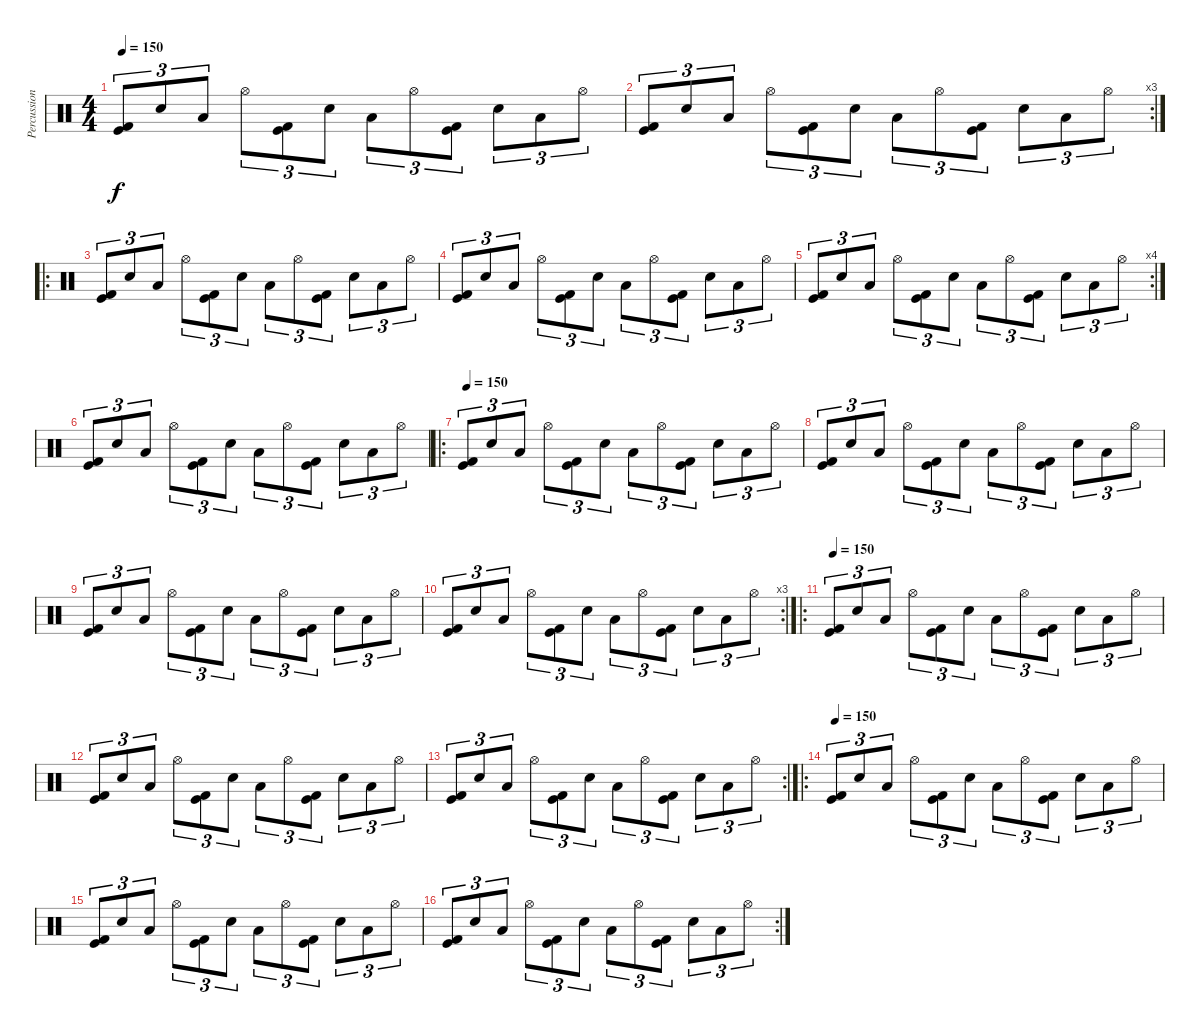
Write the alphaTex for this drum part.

\track ("Percussion" "Percussion") {instrument percussion}
\staff {score}
\articulation defaults
\ts (4 4)
\tempo 150
\clef neutral
\ks c
("Kick (hit)" "Kick (hit) 2").8{tu (3 2) dy f} "Snare (hit) 2".8{tu (3 2)} "Low Tom (hit)".8{tu (3 2)} "Hi-Hat (open)".8{tu (3 2)} ("Kick (hit)" "Kick (hit) 2").8{tu (3 2)} "Snare (hit) 2".8{tu (3 2)} "Low Tom (hit)".8{tu (3 2)} "Hi-Hat (open)".8{tu (3 2)} ("Kick (hit)" "Kick (hit) 2").8{tu (3 2)} "Snare (hit) 2".8{tu (3 2)} "Low Tom (hit)".8{tu (3 2)} "Hi-Hat (open)".8{tu (3 2)} |
\rc 3
("Kick (hit)" "Kick (hit) 2").8{tu (3 2)} "Snare (hit) 2".8{tu (3 2)} "Low Tom (hit)".8{tu (3 2)} "Hi-Hat (open)".8{tu (3 2)} ("Kick (hit)" "Kick (hit) 2").8{tu (3 2)} "Snare (hit) 2".8{tu (3 2)} "Low Tom (hit)".8{tu (3 2)} "Hi-Hat (open)".8{tu (3 2)} ("Kick (hit)" "Kick (hit) 2").8{tu (3 2)} "Snare (hit) 2".8{tu (3 2)} "Low Tom (hit)".8{tu (3 2)} "Hi-Hat (open)".8{tu (3 2)} |
\ro
("Kick (hit)" "Kick (hit) 2").8{tu (3 2)} "Snare (hit) 2".8{tu (3 2)} "Low Tom (hit)".8{tu (3 2)} "Hi-Hat (open)".8{tu (3 2)} ("Kick (hit)" "Kick (hit) 2").8{tu (3 2)} "Snare (hit) 2".8{tu (3 2)} "Low Tom (hit)".8{tu (3 2)} "Hi-Hat (open)".8{tu (3 2)} ("Kick (hit)" "Kick (hit) 2").8{tu (3 2)} "Snare (hit) 2".8{tu (3 2)} "Low Tom (hit)".8{tu (3 2)} "Hi-Hat (open)".8{tu (3 2)} |
("Kick (hit)" "Kick (hit) 2").8{tu (3 2)} "Snare (hit) 2".8{tu (3 2)} "Low Tom (hit)".8{tu (3 2)} "Hi-Hat (open)".8{tu (3 2)} ("Kick (hit)" "Kick (hit) 2").8{tu (3 2)} "Snare (hit) 2".8{tu (3 2)} "Low Tom (hit)".8{tu (3 2)} "Hi-Hat (open)".8{tu (3 2)} ("Kick (hit)" "Kick (hit) 2").8{tu (3 2)} "Snare (hit) 2".8{tu (3 2)} "Low Tom (hit)".8{tu (3 2)} "Hi-Hat (open)".8{tu (3 2)} |
\rc 4
("Kick (hit)" "Kick (hit) 2").8{tu (3 2)} "Snare (hit) 2".8{tu (3 2)} "Low Tom (hit)".8{tu (3 2)} "Hi-Hat (open)".8{tu (3 2)} ("Kick (hit)" "Kick (hit) 2").8{tu (3 2)} "Snare (hit) 2".8{tu (3 2)} "Low Tom (hit)".8{tu (3 2)} "Hi-Hat (open)".8{tu (3 2)} ("Kick (hit)" "Kick (hit) 2").8{tu (3 2)} "Snare (hit) 2".8{tu (3 2)} "Low Tom (hit)".8{tu (3 2)} "Hi-Hat (open)".8{tu (3 2)} |
("Kick (hit)" "Kick (hit) 2").8{tu (3 2)} "Snare (hit) 2".8{tu (3 2)} "Low Tom (hit)".8{tu (3 2)} "Hi-Hat (open)".8{tu (3 2)} ("Kick (hit)" "Kick (hit) 2").8{tu (3 2)} "Snare (hit) 2".8{tu (3 2)} "Low Tom (hit)".8{tu (3 2)} "Hi-Hat (open)".8{tu (3 2)} ("Kick (hit)" "Kick (hit) 2").8{tu (3 2)} "Snare (hit) 2".8{tu (3 2)} "Low Tom (hit)".8{tu (3 2)} "Hi-Hat (open)".8{tu (3 2)} |
\ro
\tempo 150
("Kick (hit)" "Kick (hit) 2").8{tu (3 2)} "Snare (hit) 2".8{tu (3 2)} "Low Tom (hit)".8{tu (3 2)} "Hi-Hat (open)".8{tu (3 2)} ("Kick (hit)" "Kick (hit) 2").8{tu (3 2)} "Snare (hit) 2".8{tu (3 2)} "Low Tom (hit)".8{tu (3 2)} "Hi-Hat (open)".8{tu (3 2)} ("Kick (hit)" "Kick (hit) 2").8{tu (3 2)} "Snare (hit) 2".8{tu (3 2)} "Low Tom (hit)".8{tu (3 2)} "Hi-Hat (open)".8{tu (3 2)} |
("Kick (hit)" "Kick (hit) 2").8{tu (3 2)} "Snare (hit) 2".8{tu (3 2)} "Low Tom (hit)".8{tu (3 2)} "Hi-Hat (open)".8{tu (3 2)} ("Kick (hit)" "Kick (hit) 2").8{tu (3 2)} "Snare (hit) 2".8{tu (3 2)} "Low Tom (hit)".8{tu (3 2)} "Hi-Hat (open)".8{tu (3 2)} ("Kick (hit)" "Kick (hit) 2").8{tu (3 2)} "Snare (hit) 2".8{tu (3 2)} "Low Tom (hit)".8{tu (3 2)} "Hi-Hat (open)".8{tu (3 2)} |
("Kick (hit)" "Kick (hit) 2").8{tu (3 2)} "Snare (hit) 2".8{tu (3 2)} "Low Tom (hit)".8{tu (3 2)} "Hi-Hat (open)".8{tu (3 2)} ("Kick (hit)" "Kick (hit) 2").8{tu (3 2)} "Snare (hit) 2".8{tu (3 2)} "Low Tom (hit)".8{tu (3 2)} "Hi-Hat (open)".8{tu (3 2)} ("Kick (hit)" "Kick (hit) 2").8{tu (3 2)} "Snare (hit) 2".8{tu (3 2)} "Low Tom (hit)".8{tu (3 2)} "Hi-Hat (open)".8{tu (3 2)} |
\rc 3
("Kick (hit)" "Kick (hit) 2").8{tu (3 2)} "Snare (hit) 2".8{tu (3 2)} "Low Tom (hit)".8{tu (3 2)} "Hi-Hat (open)".8{tu (3 2)} ("Kick (hit)" "Kick (hit) 2").8{tu (3 2)} "Snare (hit) 2".8{tu (3 2)} "Low Tom (hit)".8{tu (3 2)} "Hi-Hat (open)".8{tu (3 2)} ("Kick (hit)" "Kick (hit) 2").8{tu (3 2)} "Snare (hit) 2".8{tu (3 2)} "Low Tom (hit)".8{tu (3 2)} "Hi-Hat (open)".8{tu (3 2)} |
\ro
\tempo 150
("Kick (hit)" "Kick (hit) 2").8{tu (3 2)} "Snare (hit) 2".8{tu (3 2)} "Low Tom (hit)".8{tu (3 2)} "Hi-Hat (open)".8{tu (3 2)} ("Kick (hit)" "Kick (hit) 2").8{tu (3 2)} "Snare (hit) 2".8{tu (3 2)} "Low Tom (hit)".8{tu (3 2)} "Hi-Hat (open)".8{tu (3 2)} ("Kick (hit)" "Kick (hit) 2").8{tu (3 2)} "Snare (hit) 2".8{tu (3 2)} "Low Tom (hit)".8{tu (3 2)} "Hi-Hat (open)".8{tu (3 2)} |
("Kick (hit)" "Kick (hit) 2").8{tu (3 2)} "Snare (hit) 2".8{tu (3 2)} "Low Tom (hit)".8{tu (3 2)} "Hi-Hat (open)".8{tu (3 2)} ("Kick (hit)" "Kick (hit) 2").8{tu (3 2)} "Snare (hit) 2".8{tu (3 2)} "Low Tom (hit)".8{tu (3 2)} "Hi-Hat (open)".8{tu (3 2)} ("Kick (hit)" "Kick (hit) 2").8{tu (3 2)} "Snare (hit) 2".8{tu (3 2)} "Low Tom (hit)".8{tu (3 2)} "Hi-Hat (open)".8{tu (3 2)} |
\rc 2
("Kick (hit)" "Kick (hit) 2").8{tu (3 2)} "Snare (hit) 2".8{tu (3 2)} "Low Tom (hit)".8{tu (3 2)} "Hi-Hat (open)".8{tu (3 2)} ("Kick (hit)" "Kick (hit) 2").8{tu (3 2)} "Snare (hit) 2".8{tu (3 2)} "Low Tom (hit)".8{tu (3 2)} "Hi-Hat (open)".8{tu (3 2)} ("Kick (hit)" "Kick (hit) 2").8{tu (3 2)} "Snare (hit) 2".8{tu (3 2)} "Low Tom (hit)".8{tu (3 2)} "Hi-Hat (open)".8{tu (3 2)} |
\ro
\tempo 150
("Kick (hit)" "Kick (hit) 2").8{tu (3 2)} "Snare (hit) 2".8{tu (3 2)} "Low Tom (hit)".8{tu (3 2)} "Hi-Hat (open)".8{tu (3 2)} ("Kick (hit)" "Kick (hit) 2").8{tu (3 2)} "Snare (hit) 2".8{tu (3 2)} "Low Tom (hit)".8{tu (3 2)} "Hi-Hat (open)".8{tu (3 2)} ("Kick (hit)" "Kick (hit) 2").8{tu (3 2)} "Snare (hit) 2".8{tu (3 2)} "Low Tom (hit)".8{tu (3 2)} "Hi-Hat (open)".8{tu (3 2)} |
("Kick (hit)" "Kick (hit) 2").8{tu (3 2)} "Snare (hit) 2".8{tu (3 2)} "Low Tom (hit)".8{tu (3 2)} "Hi-Hat (open)".8{tu (3 2)} ("Kick (hit)" "Kick (hit) 2").8{tu (3 2)} "Snare (hit) 2".8{tu (3 2)} "Low Tom (hit)".8{tu (3 2)} "Hi-Hat (open)".8{tu (3 2)} ("Kick (hit)" "Kick (hit) 2").8{tu (3 2)} "Snare (hit) 2".8{tu (3 2)} "Low Tom (hit)".8{tu (3 2)} "Hi-Hat (open)".8{tu (3 2)} |
\rc 2
("Kick (hit)" "Kick (hit) 2").8{tu (3 2)} "Snare (hit) 2".8{tu (3 2)} "Low Tom (hit)".8{tu (3 2)} "Hi-Hat (open)".8{tu (3 2)} ("Kick (hit)" "Kick (hit) 2").8{tu (3 2)} "Snare (hit) 2".8{tu (3 2)} "Low Tom (hit)".8{tu (3 2)} "Hi-Hat (open)".8{tu (3 2)} ("Kick (hit)" "Kick (hit) 2").8{tu (3 2)} "Snare (hit) 2".8{tu (3 2)} "Low Tom (hit)".8{tu (3 2)} "Hi-Hat (open)".8{tu (3 2)}
